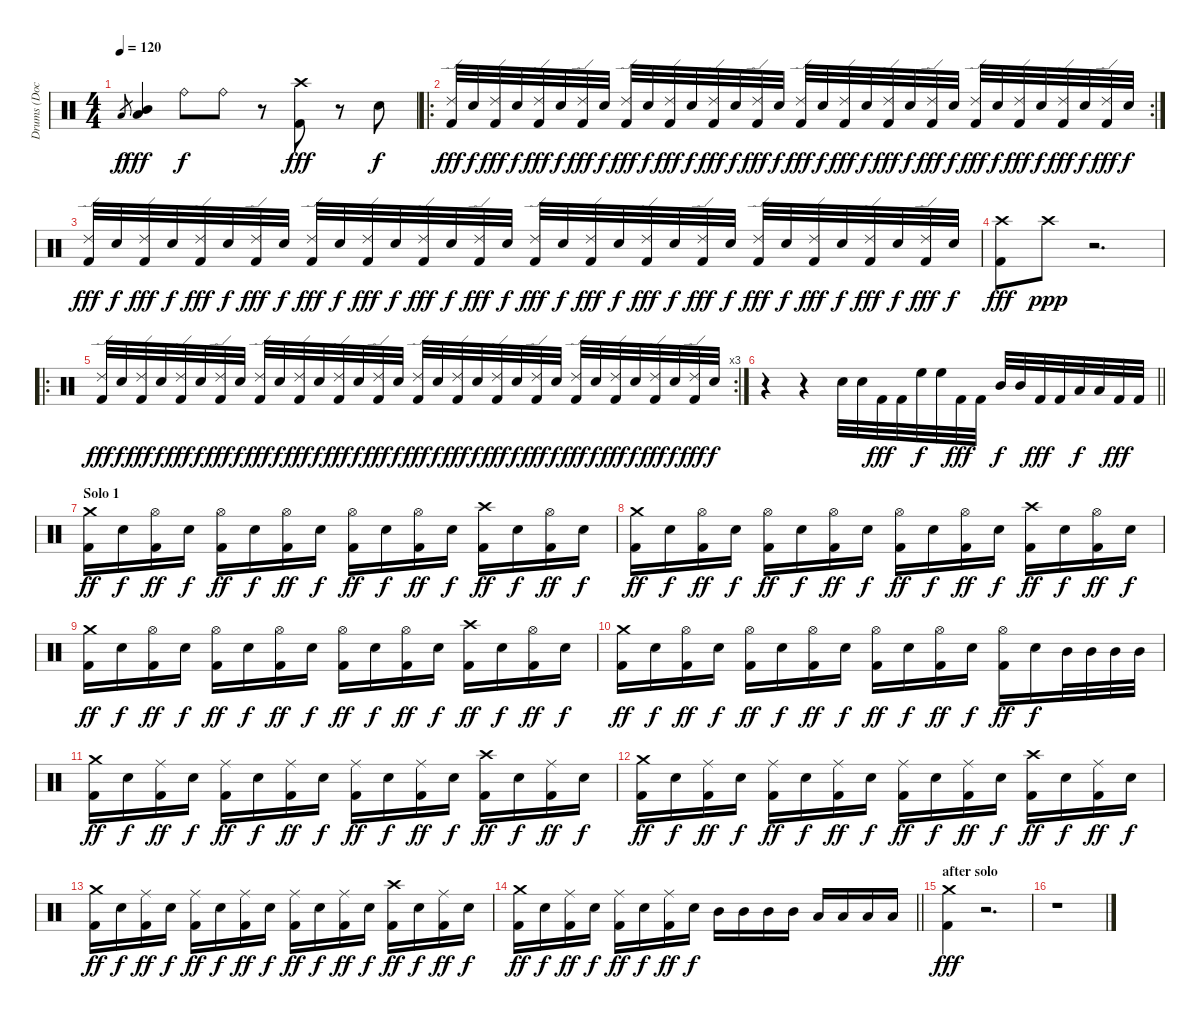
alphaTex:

\track ("Drums (Doc)" "Drums (Doc") {instrument percussion}
\staff {score}
\articulation defaults
\ts (4 4)
\tempo 120
\clef neutral
\ks c "Low Tom (hit)".8{gr dy f}
("Low Tom (hit)" "Mid Tom (hit)").4{dy fff} "Ride (bell)".8{dy f} "Ride (bell)".8 r.8 ("Crash high (hit)" "Kick (hit) 2").8{dy fff} r.8 "Electric Snare (hit)".8{dy f} |
\ro
\rc 2
("Ride (edge) 2" "Kick (hit) 2").32{dy fff} "Electric Snare (hit)".32{dy f} ("Ride (edge) 2" "Kick (hit) 2").32{dy fff} "Electric Snare (hit)".32{dy f} ("Ride (edge) 2" "Kick (hit) 2").32{dy fff} "Electric Snare (hit)".32{dy f} ("Ride (edge) 2" "Kick (hit) 2").32{dy fff} "Electric Snare (hit)".32{dy f} ("Ride (edge) 2" "Kick (hit) 2").32{dy fff} "Electric Snare (hit)".32{dy f} ("Ride (edge) 2" "Kick (hit) 2").32{dy fff} "Electric Snare (hit)".32{dy f} ("Ride (edge) 2" "Kick (hit) 2").32{dy fff} "Electric Snare (hit)".32{dy f} ("Ride (edge) 2" "Kick (hit) 2").32{dy fff} "Electric Snare (hit)".32{dy f} ("Ride (edge) 2" "Kick (hit) 2").32{dy fff} "Electric Snare (hit)".32{dy f} ("Ride (edge) 2" "Kick (hit) 2").32{dy fff} "Electric Snare (hit)".32{dy f} ("Ride (edge) 2" "Kick (hit) 2").32{dy fff} "Electric Snare (hit)".32{dy f} ("Ride (edge) 2" "Kick (hit) 2").32{dy fff} "Electric Snare (hit)".32{dy f} ("Ride (edge) 2" "Kick (hit) 2").32{dy fff} "Electric Snare (hit)".32{dy f} ("Ride (edge) 2" "Kick (hit) 2").32{dy fff} "Electric Snare (hit)".32{dy f} ("Ride (edge) 2" "Kick (hit) 2").32{dy fff} "Electric Snare (hit)".32{dy f} ("Ride (edge) 2" "Kick (hit) 2").32{dy fff} "Electric Snare (hit)".32{dy f} |
("Ride (edge) 2" "Kick (hit) 2").32{dy fff} "Electric Snare (hit)".32{dy f} ("Ride (edge) 2" "Kick (hit) 2").32{dy fff} "Electric Snare (hit)".32{dy f} ("Ride (edge) 2" "Kick (hit) 2").32{dy fff} "Electric Snare (hit)".32{dy f} ("Ride (edge) 2" "Kick (hit) 2").32{dy fff} "Electric Snare (hit)".32{dy f} ("Ride (edge) 2" "Kick (hit) 2").32{dy fff} "Electric Snare (hit)".32{dy f} ("Ride (edge) 2" "Kick (hit) 2").32{dy fff} "Electric Snare (hit)".32{dy f} ("Ride (edge) 2" "Kick (hit) 2").32{dy fff} "Electric Snare (hit)".32{dy f} ("Ride (edge) 2" "Kick (hit) 2").32{dy fff} "Electric Snare (hit)".32{dy f} ("Ride (edge) 2" "Kick (hit) 2").32{dy fff} "Electric Snare (hit)".32{dy f} ("Ride (edge) 2" "Kick (hit) 2").32{dy fff} "Electric Snare (hit)".32{dy f} ("Ride (edge) 2" "Kick (hit) 2").32{dy fff} "Electric Snare (hit)".32{dy f} ("Ride (edge) 2" "Kick (hit) 2").32{dy fff} "Electric Snare (hit)".32{dy f} ("Ride (edge) 2" "Kick (hit) 2").32{dy fff} "Electric Snare (hit)".32{dy f} ("Ride (edge) 2" "Kick (hit) 2").32{dy fff} "Electric Snare (hit)".32{dy f} ("Ride (edge) 2" "Kick (hit) 2").32{dy fff} "Electric Snare (hit)".32{dy f} ("Ride (edge) 2" "Kick (hit) 2").32{dy fff} "Electric Snare (hit)".32{dy f} |
("Crash high (hit)" "Kick (hit) 2").8{dy fff} "Crash high (hit)".8{dy ppp} r.2{d} |
\ro
\rc 3
("Ride (edge) 2" "Kick (hit) 2").32{dy fff} "Electric Snare (hit)".32{dy f} ("Ride (edge) 2" "Kick (hit) 2").32{dy fff} "Electric Snare (hit)".32{dy f} ("Ride (edge) 2" "Kick (hit) 2").32{dy fff} "Electric Snare (hit)".32{dy f} ("Ride (edge) 2" "Kick (hit) 2").32{dy fff} "Electric Snare (hit)".32{dy f} ("Ride (edge) 2" "Kick (hit) 2").32{dy fff} "Electric Snare (hit)".32{dy f} ("Ride (edge) 2" "Kick (hit) 2").32{dy fff} "Electric Snare (hit)".32{dy f} ("Ride (edge) 2" "Kick (hit) 2").32{dy fff} "Electric Snare (hit)".32{dy f} ("Ride (edge) 2" "Kick (hit) 2").32{dy fff} "Electric Snare (hit)".32{dy f} ("Ride (edge) 2" "Kick (hit) 2").32{dy fff} "Electric Snare (hit)".32{dy f} ("Ride (edge) 2" "Kick (hit) 2").32{dy fff} "Electric Snare (hit)".32{dy f} ("Ride (edge) 2" "Kick (hit) 2").32{dy fff} "Electric Snare (hit)".32{dy f} ("Ride (edge) 2" "Kick (hit) 2").32{dy fff} "Electric Snare (hit)".32{dy f} ("Ride (edge) 2" "Kick (hit) 2").32{dy fff} "Electric Snare (hit)".32{dy f} ("Ride (edge) 2" "Kick (hit) 2").32{dy fff} "Electric Snare (hit)".32{dy f} ("Ride (edge) 2" "Kick (hit) 2").32{dy fff} "Electric Snare (hit)".32{dy f} ("Ride (edge) 2" "Kick (hit) 2").32{dy fff} "Electric Snare (hit)".32{dy f} |
\barLineRight lightlight
r.4 r.4 "Electric Snare (hit)".32 "Electric Snare (hit)".32 "Kick (hit) 2".32{dy fff} "Kick (hit) 2".32 "High Floor Tom (hit)".32{dy f} "High Floor Tom (hit)".32 "Kick (hit) 2".32{dy fff} "Kick (hit) 2".32 "Mid Tom (hit)".32{dy f} "Mid Tom (hit)".32 "Kick (hit) 2".32{dy fff} "Kick (hit) 2".32 "Low Tom (hit)".32{dy f} "Low Tom (hit)".32 "Kick (hit) 2".32{dy fff} "Kick (hit) 2".32 |
\section ("" "Solo 1")
("Crash medium (hit)" "Kick (hit) 2").16{dy ff} "Electric Snare (hit)".16{dy f} ("Hi-Hat (open)" "Kick (hit) 2").16{dy ff} "Electric Snare (hit)".16{dy f} ("Hi-Hat (open)" "Kick (hit) 2").16{dy ff} "Electric Snare (hit)".16{dy f} ("Hi-Hat (open)" "Kick (hit) 2").16{dy ff} "Electric Snare (hit)".16{dy f} ("Hi-Hat (open)" "Kick (hit) 2").16{dy ff} "Electric Snare (hit)".16{dy f} ("Hi-Hat (open)" "Kick (hit) 2").16{dy ff} "Electric Snare (hit)".16{dy f} ("Crash high (hit)" "Kick (hit) 2").16{dy ff} "Electric Snare (hit)".16{dy f} ("Hi-Hat (open)" "Kick (hit) 2").16{dy ff} "Electric Snare (hit)".16{dy f} |
("Crash medium (hit)" "Kick (hit) 2").16{dy ff} "Electric Snare (hit)".16{dy f} ("Hi-Hat (open)" "Kick (hit) 2").16{dy ff} "Electric Snare (hit)".16{dy f} ("Hi-Hat (open)" "Kick (hit) 2").16{dy ff} "Electric Snare (hit)".16{dy f} ("Hi-Hat (open)" "Kick (hit) 2").16{dy ff} "Electric Snare (hit)".16{dy f} ("Hi-Hat (open)" "Kick (hit) 2").16{dy ff} "Electric Snare (hit)".16{dy f} ("Hi-Hat (open)" "Kick (hit) 2").16{dy ff} "Electric Snare (hit)".16{dy f} ("Crash high (hit)" "Kick (hit) 2").16{dy ff} "Electric Snare (hit)".16{dy f} ("Hi-Hat (open)" "Kick (hit) 2").16{dy ff} "Electric Snare (hit)".16{dy f} |
("Crash medium (hit)" "Kick (hit) 2").16{dy ff} "Electric Snare (hit)".16{dy f} ("Hi-Hat (open)" "Kick (hit) 2").16{dy ff} "Electric Snare (hit)".16{dy f} ("Hi-Hat (open)" "Kick (hit) 2").16{dy ff} "Electric Snare (hit)".16{dy f} ("Hi-Hat (open)" "Kick (hit) 2").16{dy ff} "Electric Snare (hit)".16{dy f} ("Hi-Hat (open)" "Kick (hit) 2").16{dy ff} "Electric Snare (hit)".16{dy f} ("Hi-Hat (open)" "Kick (hit) 2").16{dy ff} "Electric Snare (hit)".16{dy f} ("Crash high (hit)" "Kick (hit) 2").16{dy ff} "Electric Snare (hit)".16{dy f} ("Hi-Hat (open)" "Kick (hit) 2").16{dy ff} "Electric Snare (hit)".16{dy f} |
("Crash medium (hit)" "Kick (hit) 2").16{dy ff} "Electric Snare (hit)".16{dy f} ("Hi-Hat (open)" "Kick (hit) 2").16{dy ff} "Electric Snare (hit)".16{dy f} ("Hi-Hat (open)" "Kick (hit) 2").16{dy ff} "Electric Snare (hit)".16{dy f} ("Hi-Hat (open)" "Kick (hit) 2").16{dy ff} "Electric Snare (hit)".16{dy f} ("Hi-Hat (open)" "Kick (hit) 2").16{dy ff} "Electric Snare (hit)".16{dy f} ("Hi-Hat (open)" "Kick (hit) 2").16{dy ff} "Electric Snare (hit)".16{dy f} ("Hi-Hat (open)" "Kick (hit) 2").16{dy ff} "Electric Snare (hit)".16{dy f} "Mid Tom (hit)".32 "Mid Tom (hit)".32 "Mid Tom (hit)".32 "Mid Tom (hit)".32 |
("Crash medium (hit)" "Kick (hit) 2").16{dy ff} "Electric Snare (hit)".16{dy f} ("Ride (middle)" "Kick (hit) 2").16{dy ff} "Electric Snare (hit)".16{dy f} ("Ride (middle)" "Kick (hit) 2").16{dy ff} "Electric Snare (hit)".16{dy f} ("Ride (middle)" "Kick (hit) 2").16{dy ff} "Electric Snare (hit)".16{dy f} ("Ride (middle)" "Kick (hit) 2").16{dy ff} "Electric Snare (hit)".16{dy f} ("Ride (middle)" "Kick (hit) 2").16{dy ff} "Electric Snare (hit)".16{dy f} ("Crash high (hit)" "Kick (hit) 2").16{dy ff} "Electric Snare (hit)".16{dy f} ("Ride (middle)" "Kick (hit) 2").16{dy ff} "Electric Snare (hit)".16{dy f} |
("Crash medium (hit)" "Kick (hit) 2").16{dy ff} "Electric Snare (hit)".16{dy f} ("Ride (middle)" "Kick (hit) 2").16{dy ff} "Electric Snare (hit)".16{dy f} ("Ride (middle)" "Kick (hit) 2").16{dy ff} "Electric Snare (hit)".16{dy f} ("Ride (middle)" "Kick (hit) 2").16{dy ff} "Electric Snare (hit)".16{dy f} ("Ride (middle)" "Kick (hit) 2").16{dy ff} "Electric Snare (hit)".16{dy f} ("Ride (middle)" "Kick (hit) 2").16{dy ff} "Electric Snare (hit)".16{dy f} ("Crash high (hit)" "Kick (hit) 2").16{dy ff} "Electric Snare (hit)".16{dy f} ("Ride (middle)" "Kick (hit) 2").16{dy ff} "Electric Snare (hit)".16{dy f} |
("Crash medium (hit)" "Kick (hit) 2").16{dy ff} "Electric Snare (hit)".16{dy f} ("Ride (middle)" "Kick (hit) 2").16{dy ff} "Electric Snare (hit)".16{dy f} ("Ride (middle)" "Kick (hit) 2").16{dy ff} "Electric Snare (hit)".16{dy f} ("Ride (middle)" "Kick (hit) 2").16{dy ff} "Electric Snare (hit)".16{dy f} ("Ride (middle)" "Kick (hit) 2").16{dy ff} "Electric Snare (hit)".16{dy f} ("Ride (middle)" "Kick (hit) 2").16{dy ff} "Electric Snare (hit)".16{dy f} ("Crash high (hit)" "Kick (hit) 2").16{dy ff} "Electric Snare (hit)".16{dy f} ("Ride (middle)" "Kick (hit) 2").16{dy ff} "Electric Snare (hit)".16{dy f} |
\barLineRight lightlight
("Crash medium (hit)" "Kick (hit) 2").16{dy ff} "Electric Snare (hit)".16{dy f} ("Ride (middle)" "Kick (hit) 2").16{dy ff} "Electric Snare (hit)".16{dy f} ("Ride (middle)" "Kick (hit) 2").16{dy ff} "Electric Snare (hit)".16{dy f} ("Ride (middle)" "Kick (hit) 2").16{dy ff} "Electric Snare (hit)".16{dy f} "Mid Tom (hit)".16 "Mid Tom (hit)".16 "Mid Tom (hit)".16 "Mid Tom (hit)".16 "Low Tom (hit)".16 "Low Tom (hit)".16 "Low Tom (hit)".16 "Low Tom (hit)".16 |
\section ("" "after solo")
("Crash medium (hit)" "Kick (hit) 2").4{dy fff} r.2{d} |
r.1
